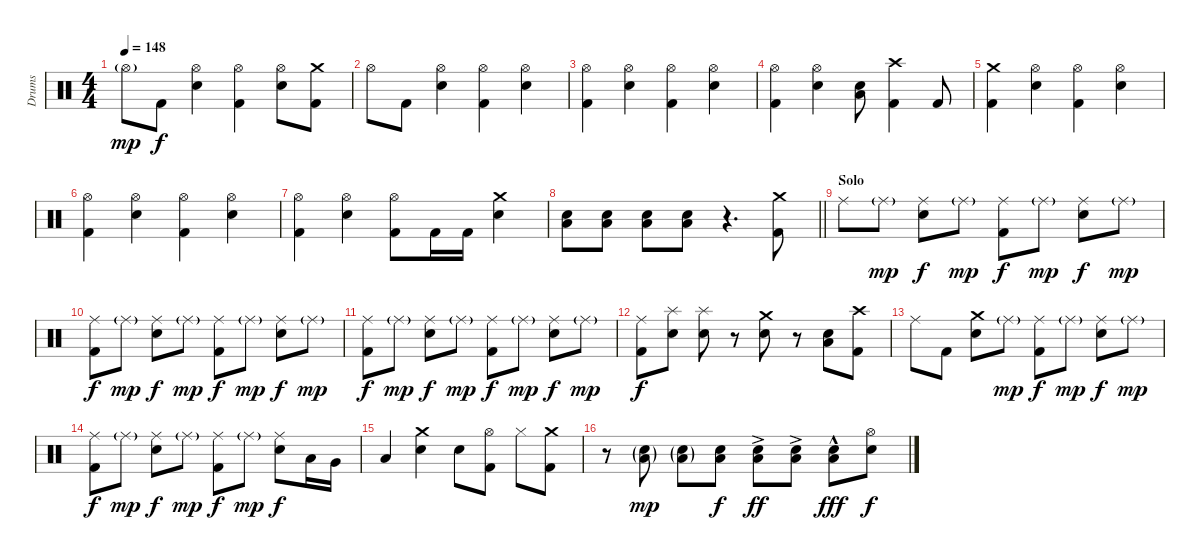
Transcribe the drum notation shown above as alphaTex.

\track ("Drums" "Drums") {instrument percussion}
\staff {score}
\articulation defaults
\ts (4 4)
\tempo 148
\clef neutral
\ks c "Hi-Hat (open)"{g}.8{dy mp} "Kick (hit) 2".8{dy f}
("Hi-Hat (open)" "Electric Snare (hit)").4 ("Hi-Hat (open)" "Kick (hit) 2").4 ("Hi-Hat (open)" "Electric Snare (hit)").8 ("Crash medium (hit)" "Kick (hit) 2").8 |
"Hi-Hat (open)".8 "Kick (hit) 2".8 ("Hi-Hat (open)" "Electric Snare (hit)").4 ("Hi-Hat (open)" "Kick (hit) 2").4 ("Hi-Hat (open)" "Electric Snare (hit)").4 |
("Hi-Hat (open)" "Kick (hit) 2").4 ("Hi-Hat (open)" "Electric Snare (hit)").4 ("Hi-Hat (open)" "Kick (hit) 2").4 ("Hi-Hat (open)" "Electric Snare (hit)").4 |
("Hi-Hat (open)" "Kick (hit) 2").4 ("Hi-Hat (open)" "Electric Snare (hit)").4 ("Low Tom (hit)" "Electric Snare (hit)").8 ("Crash high (hit)" "Kick (hit) 2").4 "Kick (hit) 2".8 |
("Crash medium (hit)" "Kick (hit) 2").4 ("Hi-Hat (open)" "Electric Snare (hit)").4 ("Hi-Hat (open)" "Kick (hit) 2").4 ("Hi-Hat (open)" "Electric Snare (hit)").4 |
("Hi-Hat (open)" "Kick (hit) 2").4 ("Hi-Hat (open)" "Electric Snare (hit)").4 ("Hi-Hat (open)" "Kick (hit) 2").4 ("Hi-Hat (open)" "Electric Snare (hit)").4 |
("Hi-Hat (open)" "Kick (hit) 2").4 ("Hi-Hat (open)" "Electric Snare (hit)").4 ("Hi-Hat (open)" "Kick (hit) 2").8 "Kick (hit) 2".16 "Kick (hit) 2".16 ("Crash medium (hit)" "Electric Snare (hit)").4 |
\barLineRight lightlight
("Low Floor Tom (hit)" "Electric Snare (hit)").8 ("Low Floor Tom (hit)" "Electric Snare (hit)").8 ("Low Floor Tom (hit)" "Electric Snare (hit)").8 ("Low Floor Tom (hit)" "Electric Snare (hit)").8 r.4{d} ("Crash medium (hit)" "Kick (hit) 2").8 |
\section ("" "Solo")
"Ride (middle)".8 "Ride (middle)"{g}.8{dy mp} ("Ride (middle)" "Electric Snare (hit)").8{dy f} "Ride (middle)"{g}.8{dy mp} ("Ride (middle)" "Kick (hit) 2").8{dy f} "Ride (middle)"{g}.8{dy mp} ("Ride (middle)" "Electric Snare (hit)").8{dy f} "Ride (middle)"{g}.8{dy mp} |
("Ride (middle)" "Kick (hit) 2").8{dy f} "Ride (middle)"{g}.8{dy mp} ("Ride (middle)" "Electric Snare (hit)").8{dy f} "Ride (middle)"{g}.8{dy mp} ("Ride (middle)" "Kick (hit) 2").8{dy f} "Ride (middle)"{g}.8{dy mp} ("Ride (middle)" "Electric Snare (hit)").8{dy f} "Ride (middle)"{g}.8{dy mp} |
("Ride (middle)" "Kick (hit) 2").8{dy f} "Ride (middle)"{g}.8{dy mp} ("Ride (middle)" "Electric Snare (hit)").8{dy f} "Ride (middle)"{g}.8{dy mp} ("Ride (middle)" "Kick (hit) 2").8{dy f} "Ride (middle)"{g}.8{dy mp} ("Ride (middle)" "Electric Snare (hit)").8{dy f} "Ride (middle)"{g}.8{dy mp} |
("Ride (middle)" "Kick (hit) 2").8{dy f} ("Splash (hit)" "Electric Snare (hit)").8 ("Splash (hit)" "Electric Snare (hit)").8 r.8 ("Crash medium (hit)" "Electric Snare (hit)").8 r.8 ("Low Floor Tom (hit)" "Electric Snare (hit)").8 ("Crash high (hit)" "Kick (hit) 2").8 |
"Ride (middle)".8 "Kick (hit) 2".8 ("Crash medium (hit)" "Electric Snare (hit)").8 "Ride (middle)"{g}.8{dy mp} ("Ride (middle)" "Kick (hit) 2").8{dy f} "Ride (middle)"{g}.8{dy mp} ("Ride (middle)" "Electric Snare (hit)").8{dy f} "Ride (middle)"{g}.8{dy mp} |
("Ride (middle)" "Kick (hit) 2").8{dy f} "Ride (middle)"{g}.8{dy mp} ("Ride (middle)" "Electric Snare (hit)").8{dy f} "Ride (middle)"{g}.8{dy mp} ("Ride (middle)" "Kick (hit) 2").8{dy f} "Ride (middle)"{g}.8{dy mp} ("Ride (middle)" "Electric Snare (hit)").8{dy f} "Low Tom (hit)".16 "Very Low Tom (hit)".16 |
"Low Floor Tom (hit)".4 ("Crash medium (hit)" "Electric Snare (hit)").4 "Electric Snare (hit)".8 ("Hi-Hat (open)" "Kick (hit) 2").8 "Hi-Hat (closed)".8 ("Crash medium (hit)" "Kick (hit) 2").8 |
r.8 ("Low Floor Tom (hit)"{g} "Electric Snare (hit)"{g}).8{dy mp} ("Low Floor Tom (hit)"{g} "Electric Snare (hit)"{g}).8 ("Low Floor Tom (hit)" "Electric Snare (hit)").8{dy f} ("Low Floor Tom (hit)"{ac} "Electric Snare (hit)"{ac}).8{dy ff} ("Low Floor Tom (hit)"{ac} "Electric Snare (hit)"{ac}).8 ("Low Floor Tom (hit)"{hac} "Electric Snare (hit)"{hac}).8{dy fff} ("Hi-Hat (open)" "Electric Snare (hit)").8{dy f}
